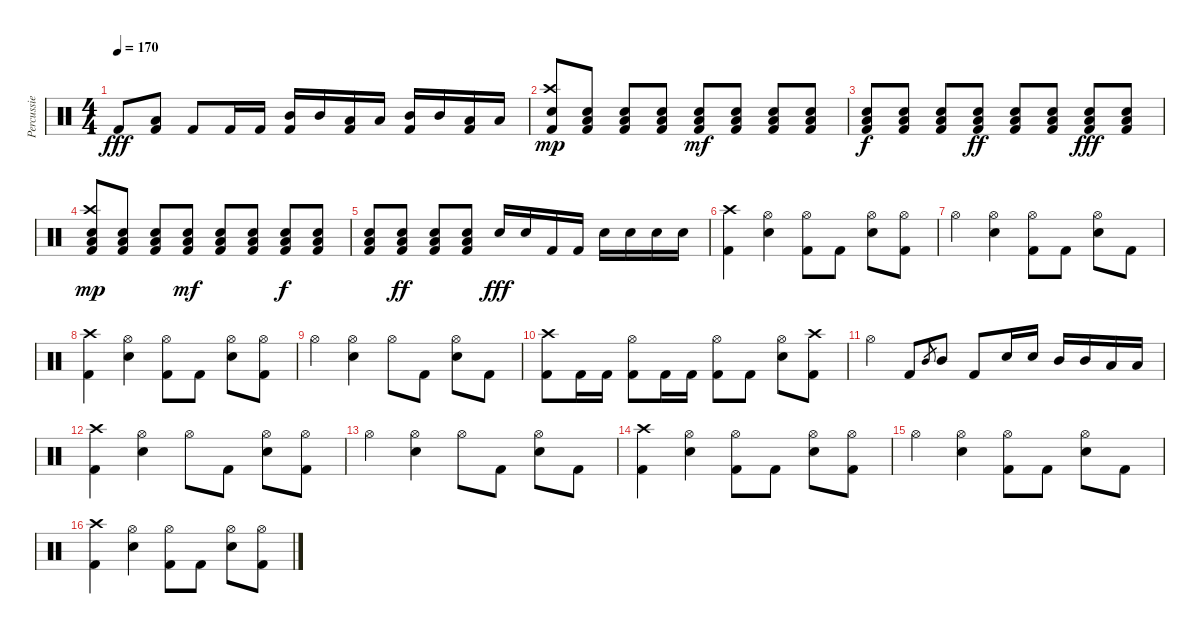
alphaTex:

\track ("Percussie" "Percussie") {instrument percussion}
\staff {score}
\articulation defaults
\ts (4 4)
\tempo 170
\clef neutral
\ks c "Kick (hit) 2".8{dy fff}
("Low Floor Tom (hit)" "Kick (hit) 2").8 "Kick (hit) 2".8 "Kick (hit) 2".16 "Kick (hit) 2".16 ("Mid Tom (hit)" "Kick (hit) 2").16 "Mid Tom (hit)".16 ("Low Tom (hit)" "Kick (hit) 2").16 "Low Tom (hit)".16 ("Mid Tom (hit)" "Kick (hit) 2").16 "Mid Tom (hit)".16 ("Low Tom (hit)" "Kick (hit) 2").16 "Low Tom (hit)".16 |
("Crash high (hit)" "Electric Snare (hit)" "Kick (hit) 2").8{dy mp} ("Electric Snare (hit)" "Low Floor Tom (hit)" "Kick (hit) 2").8 ("Electric Snare (hit)" "Low Floor Tom (hit)" "Kick (hit) 2").8 ("Electric Snare (hit)" "Low Floor Tom (hit)" "Kick (hit) 2").8 ("Electric Snare (hit)" "Low Floor Tom (hit)" "Kick (hit) 2").8{dy mf} ("Electric Snare (hit)" "Low Floor Tom (hit)" "Kick (hit) 2").8 ("Electric Snare (hit)" "Low Floor Tom (hit)" "Kick (hit) 2").8 ("Electric Snare (hit)" "Low Floor Tom (hit)" "Kick (hit) 2").8 |
("Electric Snare (hit)" "Low Floor Tom (hit)" "Kick (hit) 2").8{dy f} ("Electric Snare (hit)" "Low Floor Tom (hit)" "Kick (hit) 2").8 ("Electric Snare (hit)" "Low Floor Tom (hit)" "Kick (hit) 2").8 ("Electric Snare (hit)" "Low Floor Tom (hit)" "Kick (hit) 2").8{dy ff} ("Electric Snare (hit)" "Low Floor Tom (hit)" "Kick (hit) 2").8 ("Electric Snare (hit)" "Low Floor Tom (hit)" "Kick (hit) 2").8 ("Electric Snare (hit)" "Low Floor Tom (hit)" "Kick (hit) 2").8{dy fff} ("Electric Snare (hit)" "Low Floor Tom (hit)" "Kick (hit) 2").8 |
("Crash high (hit)" "Electric Snare (hit)" "Low Floor Tom (hit)" "Kick (hit) 2").8{dy mp} ("Electric Snare (hit)" "Low Floor Tom (hit)" "Kick (hit) 2").8 ("Electric Snare (hit)" "Low Floor Tom (hit)" "Kick (hit) 2").8 ("Electric Snare (hit)" "Low Floor Tom (hit)" "Kick (hit) 2").8{dy mf} ("Electric Snare (hit)" "Low Floor Tom (hit)" "Kick (hit) 2").8 ("Electric Snare (hit)" "Low Floor Tom (hit)" "Kick (hit) 2").8 ("Electric Snare (hit)" "Low Floor Tom (hit)" "Kick (hit) 2").8{dy f} ("Electric Snare (hit)" "Low Floor Tom (hit)" "Kick (hit) 2").8 |
("Electric Snare (hit)" "Low Floor Tom (hit)" "Kick (hit) 2").8 ("Electric Snare (hit)" "Low Floor Tom (hit)" "Kick (hit) 2").8{dy ff} ("Electric Snare (hit)" "Low Floor Tom (hit)" "Kick (hit) 2").8 ("Electric Snare (hit)" "Low Floor Tom (hit)" "Kick (hit) 2").8 "Electric Snare (hit)".16{dy fff} "Electric Snare (hit)".16 "Kick (hit) 2".16 "Kick (hit) 2".16 "Electric Snare (hit)".16 "Electric Snare (hit)".16 "Electric Snare (hit)".16 "Electric Snare (hit)".16 |
("Crash high (hit)" "Kick (hit) 2").4 ("Hi-Hat (open)" "Electric Snare (hit)").4 ("Hi-Hat (open)" "Kick (hit) 2").8 "Kick (hit) 2".8 ("Hi-Hat (open)" "Electric Snare (hit)").8 ("Hi-Hat (open)" "Kick (hit) 2").8 |
"Hi-Hat (open)".4 ("Hi-Hat (open)" "Electric Snare (hit)").4 ("Hi-Hat (open)" "Kick (hit) 2").8 "Kick (hit) 2".8 ("Hi-Hat (open)" "Electric Snare (hit)").8 "Kick (hit) 2".8 |
("Crash high (hit)" "Kick (hit) 2").4 ("Hi-Hat (open)" "Electric Snare (hit)").4 ("Hi-Hat (open)" "Kick (hit) 2").8 "Kick (hit) 2".8 ("Hi-Hat (open)" "Electric Snare (hit)").8 ("Hi-Hat (open)" "Kick (hit) 2").8 |
"Hi-Hat (open)".4 ("Hi-Hat (open)" "Electric Snare (hit)").4 "Hi-Hat (open)".8 "Kick (hit) 2".8 ("Hi-Hat (open)" "Electric Snare (hit)").8 "Kick (hit) 2".8 |
("Crash high (hit)" "Kick (hit) 2").8 "Kick (hit) 2".16 "Kick (hit) 2".16 ("Hi-Hat (open)" "Kick (hit) 2").8 "Kick (hit) 2".16 "Kick (hit) 2".16 ("Hi-Hat (open)" "Kick (hit) 2").8 "Kick (hit) 2".8 ("Hi-Hat (open)" "Electric Snare (hit)").8 ("Crash high (hit)" "Kick (hit) 2").8 |
"Hi-Hat (open)".4 "Kick (hit) 2".8 "Mid Tom (hit)".8{gr} "Mid Tom (hit)".8 "Kick (hit) 2".8 "Electric Snare (hit)".16 "Electric Snare (hit)".16 "Mid Tom (hit)".16 "Mid Tom (hit)".16 "Low Tom (hit)".16 "Low Tom (hit)".16 |
("Crash high (hit)" "Kick (hit) 2").4 ("Hi-Hat (open)" "Electric Snare (hit)").4 "Hi-Hat (open)".8 "Kick (hit) 2".8 ("Hi-Hat (open)" "Electric Snare (hit)").8 ("Hi-Hat (open)" "Kick (hit) 2").8 |
"Hi-Hat (open)".4 ("Hi-Hat (open)" "Electric Snare (hit)").4 "Hi-Hat (open)".8 "Kick (hit) 2".8 ("Hi-Hat (open)" "Electric Snare (hit)").8 "Kick (hit) 2".8 |
("Crash high (hit)" "Kick (hit) 2").4 ("Hi-Hat (open)" "Electric Snare (hit)").4 ("Hi-Hat (open)" "Kick (hit) 2").8 "Kick (hit) 2".8 ("Hi-Hat (open)" "Electric Snare (hit)").8 ("Hi-Hat (open)" "Kick (hit) 2").8 |
"Hi-Hat (open)".4 ("Hi-Hat (open)" "Electric Snare (hit)").4 ("Hi-Hat (open)" "Kick (hit) 2").8 "Kick (hit) 2".8 ("Hi-Hat (open)" "Electric Snare (hit)").8 "Kick (hit) 2".8 |
("Crash high (hit)" "Kick (hit) 2").4 ("Hi-Hat (open)" "Electric Snare (hit)").4 ("Hi-Hat (open)" "Kick (hit) 2").8 "Kick (hit) 2".8 ("Hi-Hat (open)" "Electric Snare (hit)").8 ("Hi-Hat (open)" "Kick (hit) 2").8
